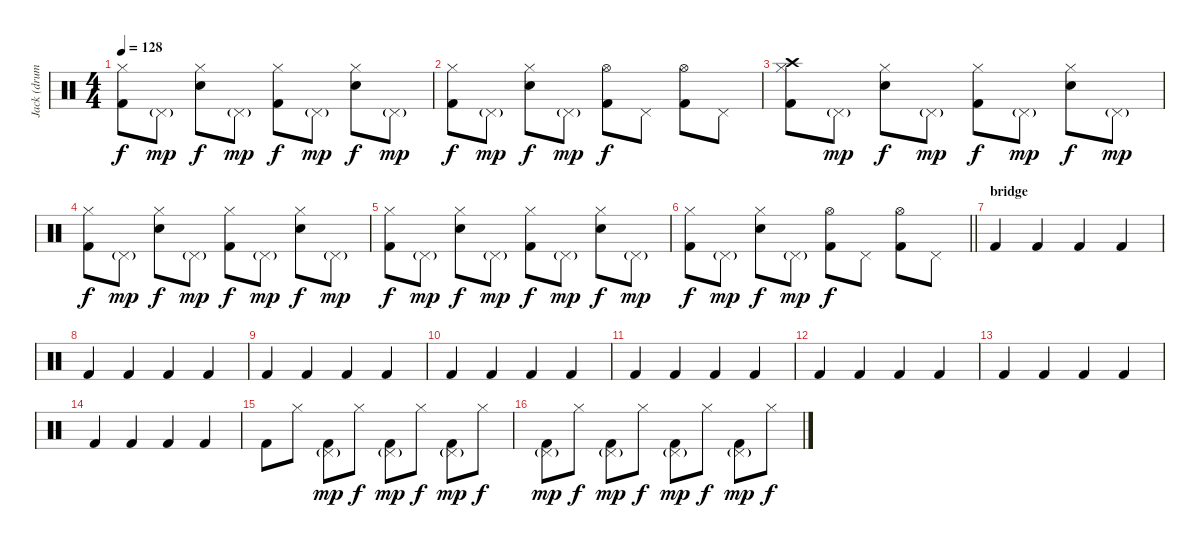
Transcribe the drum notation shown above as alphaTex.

\track ("Jack (drums)" "Jack (drum") {instrument percussion}
\staff {score}
\articulation defaults
\ts (4 4)
\tempo 128
\clef neutral
\ks c
("Hi-Hat (closed)" "Kick (hit) 2").8{dy f} "Pedal Hi-Hat (hit)"{g}.8{dy mp} ("Hi-Hat (closed)" "Snare (hit) 2").8{dy f} "Pedal Hi-Hat (hit)"{g}.8{dy mp} ("Hi-Hat (closed)" "Kick (hit) 2").8{dy f} "Pedal Hi-Hat (hit)"{g}.8{dy mp} ("Hi-Hat (closed)" "Snare (hit) 2").8{dy f} "Pedal Hi-Hat (hit)"{g}.8{dy mp} |
("Hi-Hat (closed)" "Kick (hit) 2").8{dy f} "Pedal Hi-Hat (hit)"{g}.8{dy mp} ("Hi-Hat (closed)" "Snare (hit) 2").8{dy f} "Pedal Hi-Hat (hit)"{g}.8{dy mp} ("Hi-Hat (open)" "Kick (hit) 2").8{dy f} "Pedal Hi-Hat (hit)".8 ("Hi-Hat (open)" "Kick (hit) 2").8 "Pedal Hi-Hat (hit)".8 |
("Hi-Hat (closed)" "Crash high (hit)" "Kick (hit) 2").8 "Pedal Hi-Hat (hit)"{g}.8{dy mp} ("Hi-Hat (closed)" "Snare (hit) 2").8{dy f} "Pedal Hi-Hat (hit)"{g}.8{dy mp} ("Hi-Hat (closed)" "Kick (hit) 2").8{dy f} "Pedal Hi-Hat (hit)"{g}.8{dy mp} ("Hi-Hat (closed)" "Snare (hit) 2").8{dy f} "Pedal Hi-Hat (hit)"{g}.8{dy mp} |
("Hi-Hat (closed)" "Kick (hit) 2").8{dy f} "Pedal Hi-Hat (hit)"{g}.8{dy mp} ("Hi-Hat (closed)" "Snare (hit) 2").8{dy f} "Pedal Hi-Hat (hit)"{g}.8{dy mp} ("Hi-Hat (closed)" "Kick (hit) 2").8{dy f} "Pedal Hi-Hat (hit)"{g}.8{dy mp} ("Hi-Hat (closed)" "Snare (hit) 2").8{dy f} "Pedal Hi-Hat (hit)"{g}.8{dy mp} |
("Hi-Hat (closed)" "Kick (hit) 2").8{dy f} "Pedal Hi-Hat (hit)"{g}.8{dy mp} ("Hi-Hat (closed)" "Snare (hit) 2").8{dy f} "Pedal Hi-Hat (hit)"{g}.8{dy mp} ("Hi-Hat (closed)" "Kick (hit) 2").8{dy f} "Pedal Hi-Hat (hit)"{g}.8{dy mp} ("Hi-Hat (closed)" "Snare (hit) 2").8{dy f} "Pedal Hi-Hat (hit)"{g}.8{dy mp} |
\barLineRight lightlight
("Hi-Hat (closed)" "Kick (hit) 2").8{dy f} "Pedal Hi-Hat (hit)"{g}.8{dy mp} ("Hi-Hat (closed)" "Snare (hit) 2").8{dy f} "Pedal Hi-Hat (hit)"{g}.8{dy mp} ("Hi-Hat (open)" "Kick (hit) 2").8{dy f} "Pedal Hi-Hat (hit)".8 ("Hi-Hat (open)" "Kick (hit) 2").8 "Pedal Hi-Hat (hit)".8 |
\section ("" "bridge")
"Kick (hit) 2".4 "Kick (hit) 2".4 "Kick (hit) 2".4 "Kick (hit) 2".4 |
"Kick (hit) 2".4 "Kick (hit) 2".4 "Kick (hit) 2".4 "Kick (hit) 2".4 |
"Kick (hit) 2".4 "Kick (hit) 2".4 "Kick (hit) 2".4 "Kick (hit) 2".4 |
"Kick (hit) 2".4 "Kick (hit) 2".4 "Kick (hit) 2".4 "Kick (hit) 2".4 |
"Kick (hit) 2".4 "Kick (hit) 2".4 "Kick (hit) 2".4 "Kick (hit) 2".4 |
"Kick (hit) 2".4 "Kick (hit) 2".4 "Kick (hit) 2".4 "Kick (hit) 2".4 |
"Kick (hit) 2".4 "Kick (hit) 2".4 "Kick (hit) 2".4 "Kick (hit) 2".4 |
"Kick (hit) 2".4 "Kick (hit) 2".4 "Kick (hit) 2".4 "Kick (hit) 2".4 |
"Kick (hit) 2".8 "Hi-Hat (closed)".8 ("Pedal Hi-Hat (hit)"{g} "Kick (hit) 2").8{dy mp} "Hi-Hat (closed)".8{dy f} ("Pedal Hi-Hat (hit)"{g} "Kick (hit) 2").8{dy mp} "Hi-Hat (closed)".8{dy f} ("Pedal Hi-Hat (hit)"{g} "Kick (hit) 2").8{dy mp} "Hi-Hat (closed)".8{dy f} |
("Pedal Hi-Hat (hit)"{g} "Kick (hit) 2").8{dy mp} "Hi-Hat (closed)".8{dy f} ("Pedal Hi-Hat (hit)"{g} "Kick (hit) 2").8{dy mp} "Hi-Hat (closed)".8{dy f} ("Pedal Hi-Hat (hit)"{g} "Kick (hit) 2").8{dy mp} "Hi-Hat (closed)".8{dy f} ("Pedal Hi-Hat (hit)"{g} "Kick (hit) 2").8{dy mp} "Hi-Hat (closed)".8{dy f}
